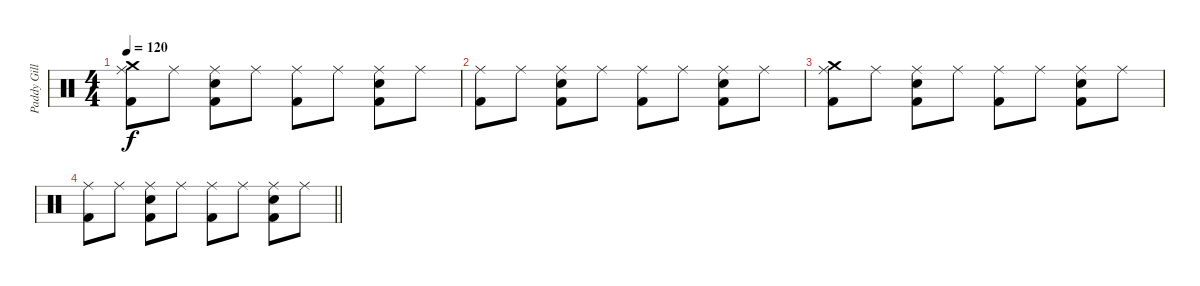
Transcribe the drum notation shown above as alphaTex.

\track ("Paddy Gillespie" "Paddy Gill") {instrument percussion}
\staff {score}
\articulation defaults
\ts (4 4)
\tempo 120
\clef neutral
\ks c
("Kick (hit) 2" "Crash medium (hit)" "Ride (middle)").8{dy f} "Ride (middle)".8 ("Kick (hit) 2" "Ride (middle)" "Snare (hit) 2").8 "Ride (middle)".8 ("Kick (hit) 2" "Ride (middle)").8 "Ride (middle)".8 ("Kick (hit) 2" "Ride (middle)" "Snare (hit) 2").8 "Ride (middle)".8 |
("Kick (hit) 2" "Ride (middle)").8 "Ride (middle)".8 ("Kick (hit) 2" "Ride (middle)" "Snare (hit) 2").8 "Ride (middle)".8 ("Kick (hit) 2" "Ride (middle)").8 "Ride (middle)".8 ("Kick (hit) 2" "Ride (middle)" "Snare (hit) 2").8 "Ride (middle)".8 |
("Kick (hit) 2" "Crash medium (hit)" "Ride (middle)").8 "Ride (middle)".8 ("Kick (hit) 2" "Ride (middle)" "Snare (hit) 2").8 "Ride (middle)".8 ("Kick (hit) 2" "Ride (middle)").8 "Ride (middle)".8 ("Kick (hit) 2" "Ride (middle)" "Snare (hit) 2").8 "Ride (middle)".8 |
\barLineRight lightlight
("Kick (hit) 2" "Ride (middle)").8 "Ride (middle)".8 ("Kick (hit) 2" "Ride (middle)" "Snare (hit) 2").8 "Ride (middle)".8 ("Kick (hit) 2" "Ride (middle)").8 "Ride (middle)".8 ("Kick (hit) 2" "Ride (middle)" "Snare (hit) 2").8 "Ride (middle)".8
